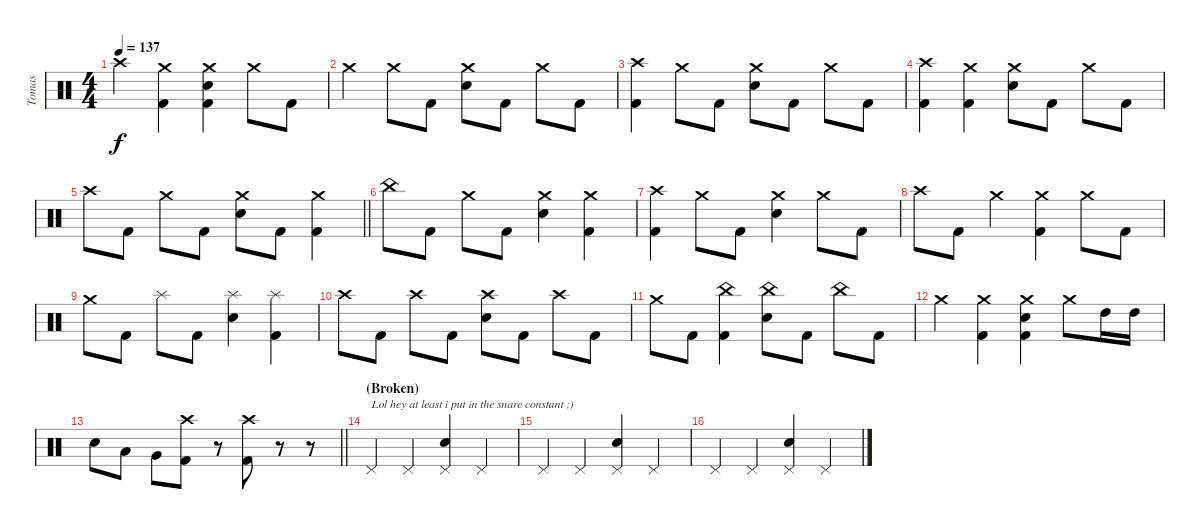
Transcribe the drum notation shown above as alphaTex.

\track ("Tomas" "Tomas") {instrument percussion}
\staff {score}
\articulation defaults
\ts (4 4)
\tempo 137
\clef neutral
\ks c "Crash high (hit)".4{dy f}
("Crash medium (hit)" "Kick (hit) 2").4 ("Crash medium (hit)" "Electric Snare (hit)" "Kick (hit) 2").4 "Crash medium (hit)".8 "Kick (hit) 2".8 |
"Crash medium (hit)".4 "Crash medium (hit)".8 "Kick (hit) 2".8 ("Crash medium (hit)" "Electric Snare (hit)").8 "Kick (hit) 2".8 "Crash medium (hit)".8 "Kick (hit) 2".8 |
("Crash high (hit)" "Kick (hit) 2").4 "Crash medium (hit)".8 "Kick (hit) 2".8 ("Crash medium (hit)" "Electric Snare (hit)").8 "Kick (hit) 2".8 "Crash medium (hit)".8 "Kick (hit) 2".8 |
("Crash high (hit)" "Kick (hit) 2").4 ("Crash medium (hit)" "Kick (hit) 2").4 ("Crash medium (hit)" "Electric Snare (hit)").8 "Kick (hit) 2".8 "Crash medium (hit)".8 "Kick (hit) 2".8 |
\barLineRight lightlight "Crash high (hit)".8 "Kick (hit) 2".8 "Crash medium (hit)".8 "Kick (hit) 2".8
("Crash medium (hit)" "Electric Snare (hit)").8 "Kick (hit) 2".8 ("Crash medium (hit)" "Kick (hit) 2").4 |
"China (hit)".8 "Kick (hit) 2".8 "Crash medium (hit)".8 "Kick (hit) 2".8 ("Crash medium (hit)" "Electric Snare (hit)").4 ("Crash medium (hit)" "Kick (hit) 2").4 |
("Crash high (hit)" "Kick (hit) 2").4 "Crash medium (hit)".8 "Kick (hit) 2".8 ("Crash medium (hit)" "Electric Snare (hit)").4 "Crash medium (hit)".8 "Kick (hit) 2".8 |
"Crash high (hit)".8 "Kick (hit) 2".8 "Crash medium (hit)".4 ("Crash medium (hit)" "Kick (hit) 2").4 "Crash medium (hit)".8 "Kick (hit) 2".8 |
"Crash medium (hit)".8 "Kick (hit) 2".8 "Splash (hit)".8 "Kick (hit) 2".8 ("Splash (hit)" "Electric Snare (hit)").4 ("Splash (hit)" "Kick (hit) 2").4 |
"Crash high (hit)".8 "Kick (hit) 2".8 "Crash high (hit)".8 "Kick (hit) 2".8 ("Crash high (hit)" "Electric Snare (hit)").8 "Kick (hit) 2".8 "Crash high (hit)".8 "Kick (hit) 2".8 |
"Crash medium (hit)".8 "Kick (hit) 2".8 ("China (hit)" "Kick (hit) 2").4 ("China (hit)" "Electric Snare (hit)").8 "Kick (hit) 2".8 "China (hit)".8 "Kick (hit) 2".8 |
"Crash medium (hit)".4 ("Crash medium (hit)" "Kick (hit) 2").4 ("Crash medium (hit)" "Electric Snare (hit)" "Kick (hit) 2").4 "Crash medium (hit)".8 "High Tom (hit)".16 "High Tom (hit)".16 |
\barLineRight lightlight "Electric Snare (hit)".8 "Low Tom (hit)".8 "Very Low Tom (hit)".8
("Crash high (hit)" "Kick (hit) 2").8 r.8 ("Crash high (hit)" "Kick (hit) 2").8 r.8 r.8 |
\section ("" "(Broken)")
"Pedal Hi-Hat (hit)".4{txt "Lol hey at least i put in the snare constant ;)"} "Pedal Hi-Hat (hit)".4 ("Pedal Hi-Hat (hit)" "Electric Snare (hit)").4 "Pedal Hi-Hat (hit)".4 |
"Pedal Hi-Hat (hit)".4 "Pedal Hi-Hat (hit)".4 ("Pedal Hi-Hat (hit)" "Electric Snare (hit)").4 "Pedal Hi-Hat (hit)".4 |
"Pedal Hi-Hat (hit)".4 "Pedal Hi-Hat (hit)".4 ("Pedal Hi-Hat (hit)" "Electric Snare (hit)").4 "Pedal Hi-Hat (hit)".4
